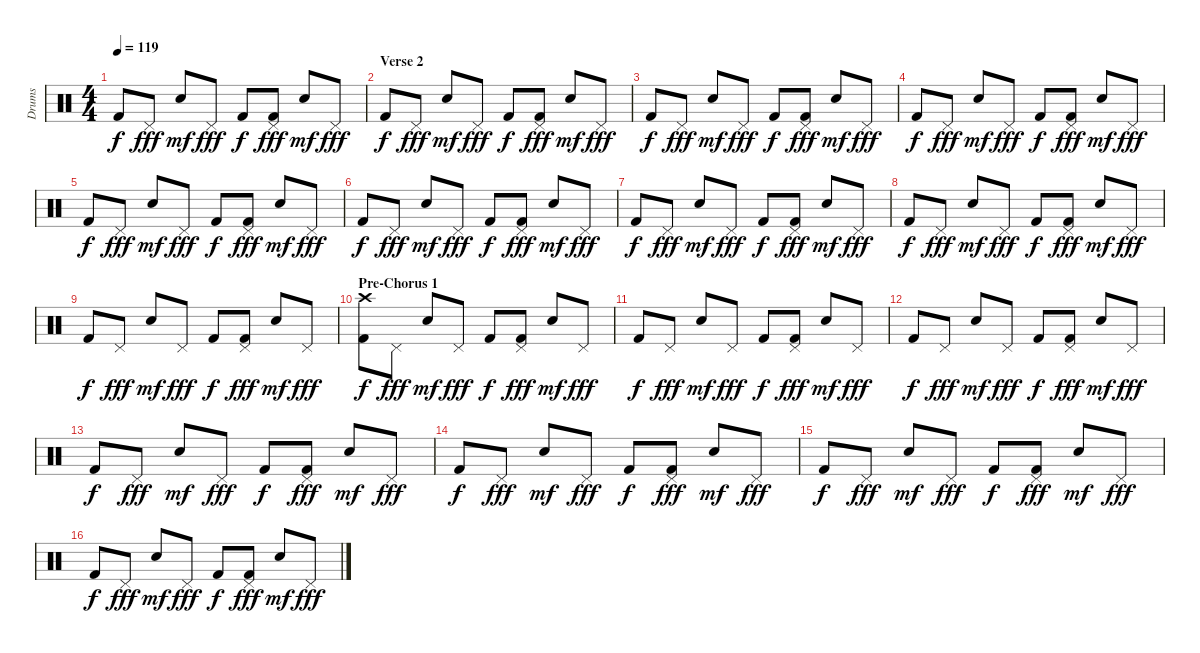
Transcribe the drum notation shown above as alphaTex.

\track ("Drums" "Drums") {instrument percussion}
\staff {score}
\articulation defaults
\ts (4 4)
\tempo 119
\clef neutral
\ks c "Kick (hit) 2".8{dy f} "Pedal Hi-Hat (hit)".8{dy fff} "Electric Snare (hit)".8{dy mf} "Pedal Hi-Hat (hit)".8{dy fff} "Kick (hit) 2".8{dy f}
("Pedal Hi-Hat (hit)" "Kick (hit) 2").8{dy fff} "Electric Snare (hit)".8{dy mf} "Pedal Hi-Hat (hit)".8{dy fff} |
\section ("" "Verse 2")
"Kick (hit) 2".8{dy f} "Pedal Hi-Hat (hit)".8{dy fff} "Electric Snare (hit)".8{dy mf} "Pedal Hi-Hat (hit)".8{dy fff} "Kick (hit) 2".8{dy f} ("Pedal Hi-Hat (hit)" "Kick (hit) 2").8{dy fff} "Electric Snare (hit)".8{dy mf} "Pedal Hi-Hat (hit)".8{dy fff} |
"Kick (hit) 2".8{dy f} "Pedal Hi-Hat (hit)".8{dy fff} "Electric Snare (hit)".8{dy mf} "Pedal Hi-Hat (hit)".8{dy fff} "Kick (hit) 2".8{dy f} ("Pedal Hi-Hat (hit)" "Kick (hit) 2").8{dy fff} "Electric Snare (hit)".8{dy mf} "Pedal Hi-Hat (hit)".8{dy fff} |
"Kick (hit) 2".8{dy f} "Pedal Hi-Hat (hit)".8{dy fff} "Electric Snare (hit)".8{dy mf} "Pedal Hi-Hat (hit)".8{dy fff} "Kick (hit) 2".8{dy f} ("Pedal Hi-Hat (hit)" "Kick (hit) 2").8{dy fff} "Electric Snare (hit)".8{dy mf} "Pedal Hi-Hat (hit)".8{dy fff} |
"Kick (hit) 2".8{dy f} "Pedal Hi-Hat (hit)".8{dy fff} "Electric Snare (hit)".8{dy mf} "Pedal Hi-Hat (hit)".8{dy fff} "Kick (hit) 2".8{dy f} ("Pedal Hi-Hat (hit)" "Kick (hit) 2").8{dy fff} "Electric Snare (hit)".8{dy mf} "Pedal Hi-Hat (hit)".8{dy fff} |
"Kick (hit) 2".8{dy f} "Pedal Hi-Hat (hit)".8{dy fff} "Electric Snare (hit)".8{dy mf} "Pedal Hi-Hat (hit)".8{dy fff} "Kick (hit) 2".8{dy f} ("Pedal Hi-Hat (hit)" "Kick (hit) 2").8{dy fff} "Electric Snare (hit)".8{dy mf} "Pedal Hi-Hat (hit)".8{dy fff} |
"Kick (hit) 2".8{dy f} "Pedal Hi-Hat (hit)".8{dy fff} "Electric Snare (hit)".8{dy mf} "Pedal Hi-Hat (hit)".8{dy fff} "Kick (hit) 2".8{dy f} ("Pedal Hi-Hat (hit)" "Kick (hit) 2").8{dy fff} "Electric Snare (hit)".8{dy mf} "Pedal Hi-Hat (hit)".8{dy fff} |
"Kick (hit) 2".8{dy f} "Pedal Hi-Hat (hit)".8{dy fff} "Electric Snare (hit)".8{dy mf} "Pedal Hi-Hat (hit)".8{dy fff} "Kick (hit) 2".8{dy f} ("Pedal Hi-Hat (hit)" "Kick (hit) 2").8{dy fff} "Electric Snare (hit)".8{dy mf} "Pedal Hi-Hat (hit)".8{dy fff} |
"Kick (hit) 2".8{dy f} "Pedal Hi-Hat (hit)".8{dy fff} "Electric Snare (hit)".8{dy mf} "Pedal Hi-Hat (hit)".8{dy fff} "Kick (hit) 2".8{dy f} ("Pedal Hi-Hat (hit)" "Kick (hit) 2").8{dy fff} "Electric Snare (hit)".8{dy mf} "Pedal Hi-Hat (hit)".8{dy fff} |
\section ("" "Pre-Chorus 1")
("Crash high (hit)" "Kick (hit) 2").8{dy f} "Pedal Hi-Hat (hit)".8{dy fff} "Electric Snare (hit)".8{dy mf} "Pedal Hi-Hat (hit)".8{dy fff} "Kick (hit) 2".8{dy f} ("Pedal Hi-Hat (hit)" "Kick (hit) 2").8{dy fff} "Electric Snare (hit)".8{dy mf} "Pedal Hi-Hat (hit)".8{dy fff} |
"Kick (hit) 2".8{dy f} "Pedal Hi-Hat (hit)".8{dy fff} "Electric Snare (hit)".8{dy mf} "Pedal Hi-Hat (hit)".8{dy fff} "Kick (hit) 2".8{dy f} ("Pedal Hi-Hat (hit)" "Kick (hit) 2").8{dy fff} "Electric Snare (hit)".8{dy mf} "Pedal Hi-Hat (hit)".8{dy fff} |
"Kick (hit) 2".8{dy f} "Pedal Hi-Hat (hit)".8{dy fff} "Electric Snare (hit)".8{dy mf} "Pedal Hi-Hat (hit)".8{dy fff} "Kick (hit) 2".8{dy f} ("Pedal Hi-Hat (hit)" "Kick (hit) 2").8{dy fff} "Electric Snare (hit)".8{dy mf} "Pedal Hi-Hat (hit)".8{dy fff} |
"Kick (hit) 2".8{dy f} "Pedal Hi-Hat (hit)".8{dy fff} "Electric Snare (hit)".8{dy mf} "Pedal Hi-Hat (hit)".8{dy fff} "Kick (hit) 2".8{dy f} ("Pedal Hi-Hat (hit)" "Kick (hit) 2").8{dy fff} "Electric Snare (hit)".8{dy mf} "Pedal Hi-Hat (hit)".8{dy fff} |
"Kick (hit) 2".8{dy f} "Pedal Hi-Hat (hit)".8{dy fff} "Electric Snare (hit)".8{dy mf} "Pedal Hi-Hat (hit)".8{dy fff} "Kick (hit) 2".8{dy f} ("Pedal Hi-Hat (hit)" "Kick (hit) 2").8{dy fff} "Electric Snare (hit)".8{dy mf} "Pedal Hi-Hat (hit)".8{dy fff} |
"Kick (hit) 2".8{dy f} "Pedal Hi-Hat (hit)".8{dy fff} "Electric Snare (hit)".8{dy mf} "Pedal Hi-Hat (hit)".8{dy fff} "Kick (hit) 2".8{dy f} ("Pedal Hi-Hat (hit)" "Kick (hit) 2").8{dy fff} "Electric Snare (hit)".8{dy mf} "Pedal Hi-Hat (hit)".8{dy fff} |
"Kick (hit) 2".8{dy f} "Pedal Hi-Hat (hit)".8{dy fff} "Electric Snare (hit)".8{dy mf} "Pedal Hi-Hat (hit)".8{dy fff} "Kick (hit) 2".8{dy f} ("Pedal Hi-Hat (hit)" "Kick (hit) 2").8{dy fff} "Electric Snare (hit)".8{dy mf} "Pedal Hi-Hat (hit)".8{dy fff}
